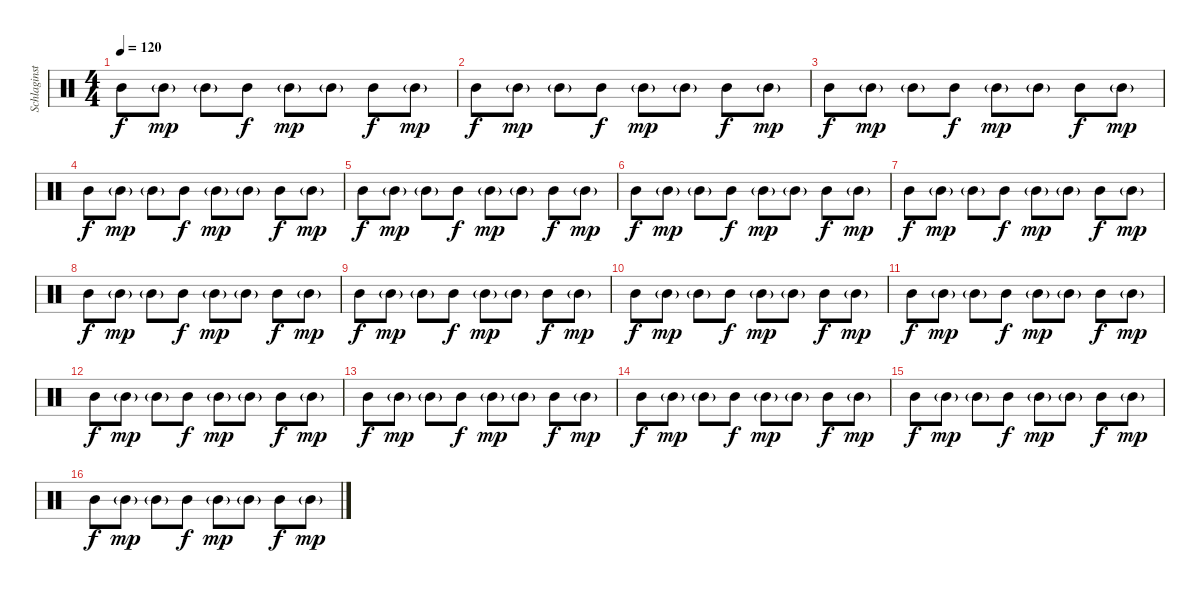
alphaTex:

\track ("Schlaginstrumente - Auswahl" "Schlaginst") {instrument percussion}
\staff {score}
\articulation defaults
\ts (4 4)
\tempo 120
\clef neutral
\ks c "Mid Tom (hit)".8{dy f} "Mid Tom (hit)"{g}.8{dy mp} "Mid Tom (hit)"{g}.8 "Mid Tom (hit)".8{dy f} "Mid Tom (hit)"{g}.8{dy mp} "Mid Tom (hit)"{g}.8 "Mid Tom (hit)".8{dy f} "Mid Tom (hit)"{g}.8{dy mp}
|
"Mid Tom (hit)".8{dy f} "Mid Tom (hit)"{g}.8{dy mp} "Mid Tom (hit)"{g}.8 "Mid Tom (hit)".8{dy f} "Mid Tom (hit)"{g}.8{dy mp} "Mid Tom (hit)"{g}.8 "Mid Tom (hit)".8{dy f} "Mid Tom (hit)"{g}.8{dy mp} |
"Mid Tom (hit)".8{dy f} "Mid Tom (hit)"{g}.8{dy mp} "Mid Tom (hit)"{g}.8 "Mid Tom (hit)".8{dy f} "Mid Tom (hit)"{g}.8{dy mp} "Mid Tom (hit)"{g}.8 "Mid Tom (hit)".8{dy f} "Mid Tom (hit)"{g}.8{dy mp} |
"Mid Tom (hit)".8{dy f} "Mid Tom (hit)"{g}.8{dy mp} "Mid Tom (hit)"{g}.8 "Mid Tom (hit)".8{dy f} "Mid Tom (hit)"{g}.8{dy mp} "Mid Tom (hit)"{g}.8 "Mid Tom (hit)".8{dy f} "Mid Tom (hit)"{g}.8{dy mp} |
"Mid Tom (hit)".8{dy f} "Mid Tom (hit)"{g}.8{dy mp} "Mid Tom (hit)"{g}.8 "Mid Tom (hit)".8{dy f} "Mid Tom (hit)"{g}.8{dy mp} "Mid Tom (hit)"{g}.8 "Mid Tom (hit)".8{dy f} "Mid Tom (hit)"{g}.8{dy mp} |
"Mid Tom (hit)".8{dy f} "Mid Tom (hit)"{g}.8{dy mp} "Mid Tom (hit)"{g}.8 "Mid Tom (hit)".8{dy f} "Mid Tom (hit)"{g}.8{dy mp} "Mid Tom (hit)"{g}.8 "Mid Tom (hit)".8{dy f} "Mid Tom (hit)"{g}.8{dy mp} |
"Mid Tom (hit)".8{dy f} "Mid Tom (hit)"{g}.8{dy mp} "Mid Tom (hit)"{g}.8 "Mid Tom (hit)".8{dy f} "Mid Tom (hit)"{g}.8{dy mp} "Mid Tom (hit)"{g}.8 "Mid Tom (hit)".8{dy f} "Mid Tom (hit)"{g}.8{dy mp} |
"Mid Tom (hit)".8{dy f} "Mid Tom (hit)"{g}.8{dy mp} "Mid Tom (hit)"{g}.8 "Mid Tom (hit)".8{dy f} "Mid Tom (hit)"{g}.8{dy mp} "Mid Tom (hit)"{g}.8 "Mid Tom (hit)".8{dy f} "Mid Tom (hit)"{g}.8{dy mp} |
"Mid Tom (hit)".8{dy f} "Mid Tom (hit)"{g}.8{dy mp} "Mid Tom (hit)"{g}.8 "Mid Tom (hit)".8{dy f} "Mid Tom (hit)"{g}.8{dy mp} "Mid Tom (hit)"{g}.8 "Mid Tom (hit)".8{dy f} "Mid Tom (hit)"{g}.8{dy mp} |
"Mid Tom (hit)".8{dy f} "Mid Tom (hit)"{g}.8{dy mp} "Mid Tom (hit)"{g}.8 "Mid Tom (hit)".8{dy f} "Mid Tom (hit)"{g}.8{dy mp} "Mid Tom (hit)"{g}.8 "Mid Tom (hit)".8{dy f} "Mid Tom (hit)"{g}.8{dy mp} |
"Mid Tom (hit)".8{dy f} "Mid Tom (hit)"{g}.8{dy mp} "Mid Tom (hit)"{g}.8 "Mid Tom (hit)".8{dy f} "Mid Tom (hit)"{g}.8{dy mp} "Mid Tom (hit)"{g}.8 "Mid Tom (hit)".8{dy f} "Mid Tom (hit)"{g}.8{dy mp} |
"Mid Tom (hit)".8{dy f} "Mid Tom (hit)"{g}.8{dy mp} "Mid Tom (hit)"{g}.8 "Mid Tom (hit)".8{dy f} "Mid Tom (hit)"{g}.8{dy mp} "Mid Tom (hit)"{g}.8 "Mid Tom (hit)".8{dy f} "Mid Tom (hit)"{g}.8{dy mp} |
"Mid Tom (hit)".8{dy f} "Mid Tom (hit)"{g}.8{dy mp} "Mid Tom (hit)"{g}.8 "Mid Tom (hit)".8{dy f} "Mid Tom (hit)"{g}.8{dy mp} "Mid Tom (hit)"{g}.8 "Mid Tom (hit)".8{dy f} "Mid Tom (hit)"{g}.8{dy mp} |
"Mid Tom (hit)".8{dy f} "Mid Tom (hit)"{g}.8{dy mp} "Mid Tom (hit)"{g}.8 "Mid Tom (hit)".8{dy f} "Mid Tom (hit)"{g}.8{dy mp} "Mid Tom (hit)"{g}.8 "Mid Tom (hit)".8{dy f} "Mid Tom (hit)"{g}.8{dy mp} |
"Mid Tom (hit)".8{dy f} "Mid Tom (hit)"{g}.8{dy mp} "Mid Tom (hit)"{g}.8 "Mid Tom (hit)".8{dy f} "Mid Tom (hit)"{g}.8{dy mp} "Mid Tom (hit)"{g}.8 "Mid Tom (hit)".8{dy f} "Mid Tom (hit)"{g}.8{dy mp} |
"Mid Tom (hit)".8{dy f} "Mid Tom (hit)"{g}.8{dy mp} "Mid Tom (hit)"{g}.8 "Mid Tom (hit)".8{dy f} "Mid Tom (hit)"{g}.8{dy mp} "Mid Tom (hit)"{g}.8 "Mid Tom (hit)".8{dy f} "Mid Tom (hit)"{g}.8{dy mp}
